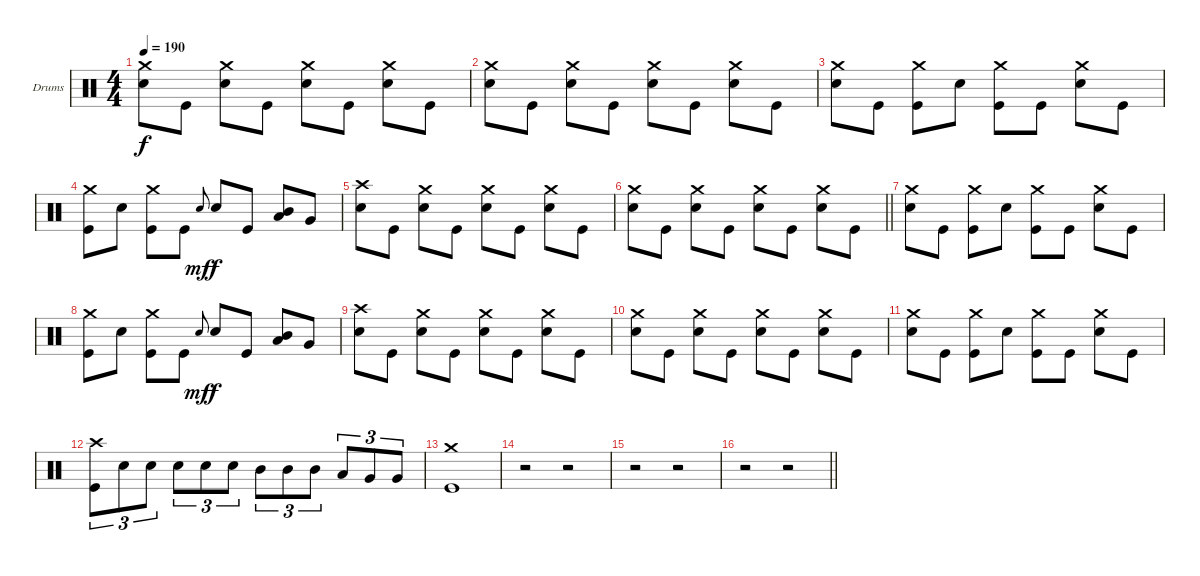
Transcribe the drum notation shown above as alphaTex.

\bracketExtendMode groupsimilarinstruments
\firstSystemTrackNameOrientation horizontal
\otherSystemsTrackNameOrientation horizontal
\track ("Drumkit" "Drums") {instrument percussion}
\staff {score}
\articulation defaults
\ts (4 4)
\tempo 190
\clef neutral
\ks c
("Crash medium (hit)" "Snare (hit) 2").8{dy f} "Kick (hit)".8 ("Crash medium (hit)" "Snare (hit) 2").8 "Kick (hit)".8 ("Crash medium (hit)" "Snare (hit) 2").8 "Kick (hit)".8 ("Crash medium (hit)" "Snare (hit) 2").8 "Kick (hit)".8 |
("Crash medium (hit)" "Snare (hit) 2").8 "Kick (hit)".8 ("Crash medium (hit)" "Snare (hit) 2").8 "Kick (hit)".8 ("Crash medium (hit)" "Snare (hit) 2").8 "Kick (hit)".8 ("Crash medium (hit)" "Snare (hit) 2").8 "Kick (hit)".8 |
("Crash medium (hit)" "Snare (hit) 2").8 "Kick (hit)".8 ("Crash medium (hit)" "Kick (hit)").8 "Snare (hit) 2".8 ("Crash medium (hit)" "Kick (hit)").8 "Kick (hit)".8 ("Crash medium (hit)" "Snare (hit) 2").8 "Kick (hit)".8 |
("Crash medium (hit)" "Kick (hit)").8 "Snare (hit) 2".8 ("Crash medium (hit)" "Kick (hit)").8 "Kick (hit)".8 "Snare (hit) 2".8{gr onbeat dy mf} "Snare (hit) 2".8{dy f} "Kick (hit)".8 ("Low Tom (hit)" "Mid Tom (hit)").8 "Very Low Tom (hit)".8 |
("Crash high (hit)" "Snare (hit) 2").8 "Kick (hit)".8 ("Crash medium (hit)" "Snare (hit) 2").8 "Kick (hit)".8 ("Crash medium (hit)" "Snare (hit) 2").8 "Kick (hit)".8 ("Crash medium (hit)" "Snare (hit) 2").8 "Kick (hit)".8 |
\barLineRight lightlight
("Crash medium (hit)" "Snare (hit) 2").8 "Kick (hit)".8 ("Crash medium (hit)" "Snare (hit) 2").8 "Kick (hit)".8 ("Crash medium (hit)" "Snare (hit) 2").8 "Kick (hit)".8 ("Crash medium (hit)" "Snare (hit) 2").8 "Kick (hit)".8 |
("Crash medium (hit)" "Snare (hit) 2").8 "Kick (hit)".8 ("Crash medium (hit)" "Kick (hit)").8 "Snare (hit) 2".8 ("Crash medium (hit)" "Kick (hit)").8 "Kick (hit)".8 ("Crash medium (hit)" "Snare (hit) 2").8 "Kick (hit)".8 |
("Crash medium (hit)" "Kick (hit)").8 "Snare (hit) 2".8 ("Crash medium (hit)" "Kick (hit)").8 "Kick (hit)".8 "Snare (hit) 2".8{gr onbeat dy mf} "Snare (hit) 2".8{dy f} "Kick (hit)".8 ("Low Tom (hit)" "Mid Tom (hit)").8 "Very Low Tom (hit)".8 |
("Crash high (hit)" "Snare (hit) 2").8 "Kick (hit)".8 ("Crash medium (hit)" "Snare (hit) 2").8 "Kick (hit)".8 ("Crash medium (hit)" "Snare (hit) 2").8 "Kick (hit)".8 ("Crash medium (hit)" "Snare (hit) 2").8 "Kick (hit)".8 |
("Crash medium (hit)" "Snare (hit) 2").8 "Kick (hit)".8 ("Crash medium (hit)" "Snare (hit) 2").8 "Kick (hit)".8 ("Crash medium (hit)" "Snare (hit) 2").8 "Kick (hit)".8 ("Crash medium (hit)" "Snare (hit) 2").8 "Kick (hit)".8 |
("Crash medium (hit)" "Snare (hit) 2").8 "Kick (hit)".8 ("Crash medium (hit)" "Kick (hit)").8 "Snare (hit) 2".8 ("Crash medium (hit)" "Kick (hit)").8 "Kick (hit)".8 ("Crash medium (hit)" "Snare (hit) 2").8 "Kick (hit)".8 |
("Crash high (hit)" "Kick (hit)").8{tu (3 2)} "Snare (hit) 2".8{tu (3 2)} "Snare (hit) 2".8{tu (3 2)} "Snare (hit) 2".8{tu (3 2)} "Snare (hit) 2".8{tu (3 2)} "Snare (hit) 2".8{tu (3 2)} "Mid Tom (hit)".8{tu (3 2)} "Mid Tom (hit)".8{tu (3 2)} "Mid Tom (hit)".8{tu (3 2)} "Low Tom (hit)".8{tu (3 2)} "Very Low Tom (hit)".8{tu (3 2)} "Very Low Tom (hit)".8{tu (3 2)} |
("Crash medium (hit)" "Kick (hit)").1 |
r.2 r.2 |
r.2 r.2 |
\barLineRight lightlight
r.2 r.2
